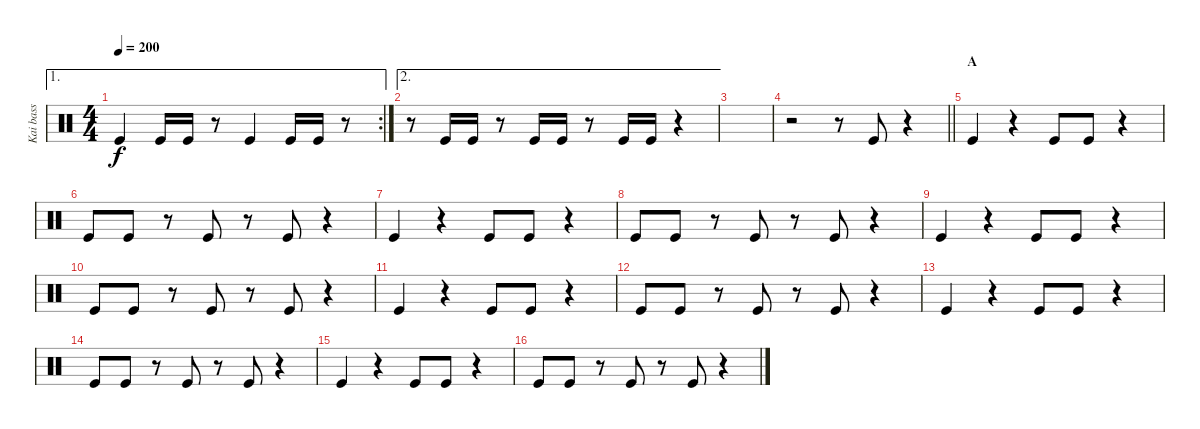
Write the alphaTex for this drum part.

\track ("Kai bass" "Kai bass") {instrument percussion}
\staff {score}
\articulation defaults
\ae 1
\rc 2
\ts (4 4)
\tempo 200
\clef neutral
\ks c "Kick (hit)".4{dy f} "Kick (hit)".16 "Kick (hit)".16
r.8 "Kick (hit)".4 "Kick (hit)".16 "Kick (hit)".16 r.8 |
\ae 2
r.8 "Kick (hit)".16 "Kick (hit)".16 r.8 "Kick (hit)".16 "Kick (hit)".16 r.8 "Kick (hit)".16 "Kick (hit)".16 r.4 |
|
\barLineRight lightlight
r.2 r.8 "Kick (hit)".8 r.4 |
\section ("" "A")
"Kick (hit)".4 r.4 "Kick (hit)".8 "Kick (hit)".8 r.4 |
"Kick (hit)".8 "Kick (hit)".8 r.8 "Kick (hit)".8 r.8 "Kick (hit)".8 r.4 |
"Kick (hit)".4 r.4 "Kick (hit)".8 "Kick (hit)".8 r.4 |
"Kick (hit)".8 "Kick (hit)".8 r.8 "Kick (hit)".8 r.8 "Kick (hit)".8 r.4 |
"Kick (hit)".4 r.4 "Kick (hit)".8 "Kick (hit)".8 r.4 |
"Kick (hit)".8 "Kick (hit)".8 r.8 "Kick (hit)".8 r.8 "Kick (hit)".8 r.4 |
"Kick (hit)".4 r.4 "Kick (hit)".8 "Kick (hit)".8 r.4 |
"Kick (hit)".8 "Kick (hit)".8 r.8 "Kick (hit)".8 r.8 "Kick (hit)".8 r.4 |
"Kick (hit)".4 r.4 "Kick (hit)".8 "Kick (hit)".8 r.4 |
"Kick (hit)".8 "Kick (hit)".8 r.8 "Kick (hit)".8 r.8 "Kick (hit)".8 r.4 |
"Kick (hit)".4 r.4 "Kick (hit)".8 "Kick (hit)".8 r.4 |
"Kick (hit)".8 "Kick (hit)".8 r.8 "Kick (hit)".8 r.8 "Kick (hit)".8 r.4
